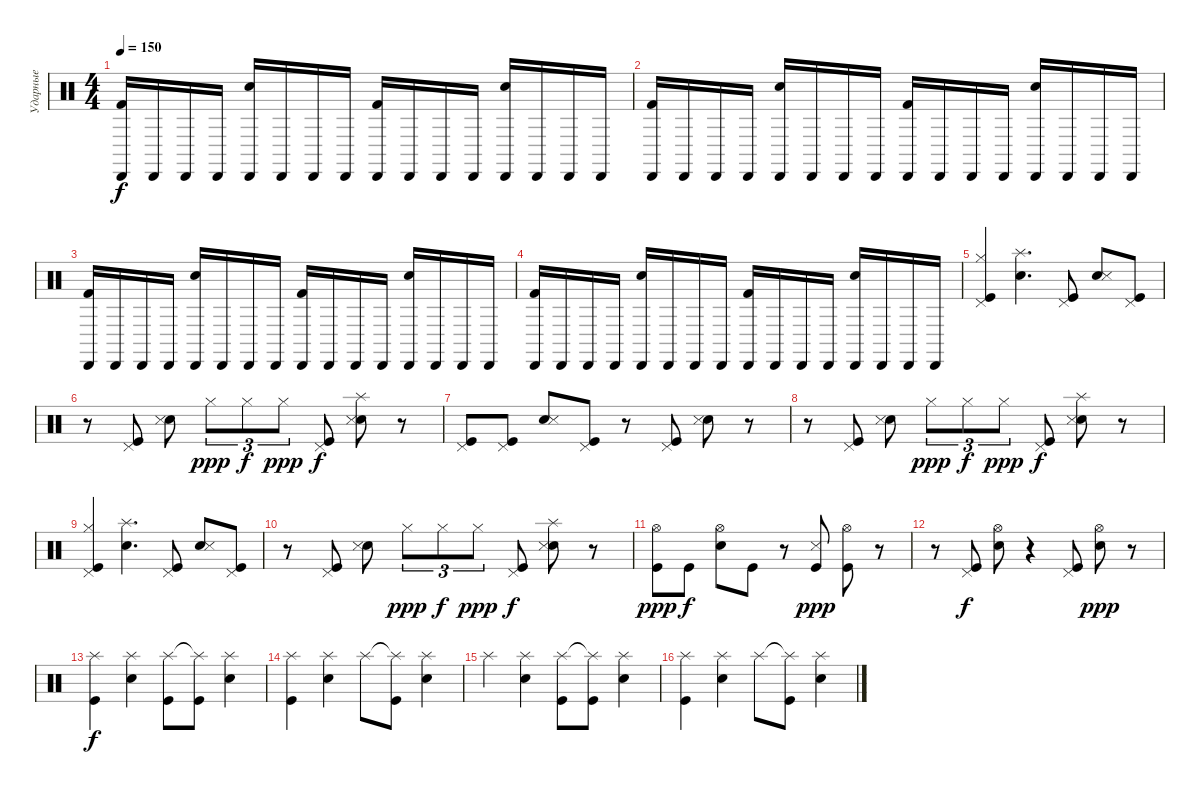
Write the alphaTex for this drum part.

\track ("Ударные" "Ударные") {instrument percussion}
\staff {score}
\articulation defaults
\ts (4 4)
\tempo 150
\clef neutral
\ks c
("Kick (hit) 2" "Cabasa (hit)").16{dy f} "Cabasa (hit)".16 "Cabasa (hit)".16 "Cabasa (hit)".16 ("Snare (hit) 2" "Cabasa (hit)").16 "Cabasa (hit)".16 "Cabasa (hit)".16 "Cabasa (hit)".16 ("Kick (hit) 2" "Cabasa (hit)").16 "Cabasa (hit)".16 "Cabasa (hit)".16 "Cabasa (hit)".16 ("Snare (hit) 2" "Cabasa (hit)").16 "Cabasa (hit)".16 "Cabasa (hit)".16 "Cabasa (hit)".16 |
("Kick (hit) 2" "Cabasa (hit)").16 "Cabasa (hit)".16 "Cabasa (hit)".16 "Cabasa (hit)".16 ("Snare (hit) 2" "Cabasa (hit)").16 "Cabasa (hit)".16 "Cabasa (hit)".16 "Cabasa (hit)".16 ("Kick (hit) 2" "Cabasa (hit)").16 "Cabasa (hit)".16 "Cabasa (hit)".16 "Cabasa (hit)".16 ("Snare (hit) 2" "Cabasa (hit)").16 "Cabasa (hit)".16 "Cabasa (hit)".16 "Cabasa (hit)".16 |
("Kick (hit) 2" "Cabasa (hit)").16 "Cabasa (hit)".16 "Cabasa (hit)".16 "Cabasa (hit)".16 ("Snare (hit) 2" "Cabasa (hit)").16 "Cabasa (hit)".16 "Cabasa (hit)".16 "Cabasa (hit)".16 ("Kick (hit) 2" "Cabasa (hit)").16 "Cabasa (hit)".16 "Cabasa (hit)".16 "Cabasa (hit)".16 ("Snare (hit) 2" "Cabasa (hit)").16 "Cabasa (hit)".16 "Cabasa (hit)".16 "Cabasa (hit)".16 |
("Kick (hit) 2" "Cabasa (hit)").16 "Cabasa (hit)".16 "Cabasa (hit)".16 "Cabasa (hit)".16 ("Snare (hit) 2" "Cabasa (hit)").16 "Cabasa (hit)".16 "Cabasa (hit)".16 "Cabasa (hit)".16 ("Kick (hit) 2" "Cabasa (hit)").16 "Cabasa (hit)".16 "Cabasa (hit)".16 "Cabasa (hit)".16 ("Snare (hit) 2" "Cabasa (hit)").16 "Cabasa (hit)".16 "Cabasa (hit)".16 "Cabasa (hit)".16 |
("Kick (hit)" "Hi-Hat (closed)" "Pedal Hi-Hat (hit)").4 ("Snare (hit) 2" "Splash (hit)").4{d} ("Kick (hit)" "Pedal Hi-Hat (hit)").8 ("Snare (hit) 2" "Snare (side stick) 3").8 ("Kick (hit)" "Pedal Hi-Hat (hit)").8 |
r.8 ("Kick (hit)" "Pedal Hi-Hat (hit)").8 ("Snare (hit) 2" "Snare (side stick) 3").8 "Hi-Hat (closed)".8{tu (3 2) dy ppp} "Hi-Hat (closed)".8{tu (3 2) dy f} "Hi-Hat (closed)".8{tu (3 2) dy ppp} ("Kick (hit)" "Pedal Hi-Hat (hit)").8{dy f} ("Snare (hit) 2" "Snare (side stick) 3" "Splash (hit)").8 r.8 |
("Kick (hit)" "Pedal Hi-Hat (hit)").8 ("Kick (hit)" "Pedal Hi-Hat (hit)").8 ("Snare (hit) 2" "Snare (side stick) 3").8 ("Kick (hit)" "Pedal Hi-Hat (hit)").8 r.8 ("Kick (hit)" "Pedal Hi-Hat (hit)").8 ("Snare (hit) 2" "Snare (side stick) 3").8 r.8 |
r.8 ("Kick (hit)" "Pedal Hi-Hat (hit)").8 ("Snare (hit) 2" "Snare (side stick) 3").8 "Hi-Hat (closed)".8{tu (3 2) dy ppp} "Hi-Hat (closed)".8{tu (3 2) dy f} "Hi-Hat (closed)".8{tu (3 2) dy ppp} ("Kick (hit)" "Pedal Hi-Hat (hit)").8{dy f} ("Snare (hit) 2" "Snare (side stick) 3" "Splash (hit)").8 r.8 |
("Kick (hit)" "Hi-Hat (closed)" "Pedal Hi-Hat (hit)").4 ("Snare (hit) 2" "Splash (hit)").4{d} ("Kick (hit)" "Pedal Hi-Hat (hit)").8 ("Snare (hit) 2" "Snare (side stick) 3").8 ("Kick (hit)" "Pedal Hi-Hat (hit)").8 |
r.8 ("Kick (hit)" "Pedal Hi-Hat (hit)").8 ("Snare (hit) 2" "Snare (side stick) 3").8 "Hi-Hat (closed)".8{tu (3 2) dy ppp} "Hi-Hat (closed)".8{tu (3 2) dy f} "Hi-Hat (closed)".8{tu (3 2) dy ppp} ("Kick (hit)" "Pedal Hi-Hat (hit)").8{dy f} ("Snare (hit) 2" "Snare (side stick) 3" "Splash (hit)").8 r.8 |
("Hi-Hat (open)" "Kick (hit)").8{dy ppp} "Kick (hit)".8{dy f} ("Hi-Hat (open)" "Snare (hit) 2").8 "Kick (hit)".8 r.8 ("Snare (side stick) 3" "Kick (hit)").8{dy ppp} ("Hi-Hat (open)" "Kick (hit)").8 r.8 |
r.8 ("Kick (hit)" "Pedal Hi-Hat (hit)").8{dy f} ("Hi-Hat (open)" "Snare (hit) 2").8 r.4 ("Kick (hit)" "Pedal Hi-Hat (hit)").8 ("Hi-Hat (open)" "Snare (hit) 2").8{dy ppp} r.8 |
("Splash (hit)" "Kick (hit)").4{dy f} ("Splash (hit)" "Snare (hit) 2").4 ("Splash (hit)" "Kick (hit)").8 ("Splash (hit)"{t} "Kick (hit)").8 ("Splash (hit)" "Snare (hit) 2").4 |
("Splash (hit)" "Kick (hit)").4 ("Splash (hit)" "Snare (hit) 2").4 "Splash (hit)".8 ("Splash (hit)"{t} "Kick (hit)").8 ("Splash (hit)" "Snare (hit) 2").4 |
"Splash (hit)".4 ("Splash (hit)" "Snare (hit) 2").4 ("Splash (hit)" "Kick (hit)").8 ("Splash (hit)"{t} "Kick (hit)").8 ("Splash (hit)" "Snare (hit) 2").4 |
("Splash (hit)" "Kick (hit)").4 ("Splash (hit)" "Snare (hit) 2").4 "Splash (hit)".8 ("Splash (hit)"{t} "Kick (hit)").8 ("Splash (hit)" "Snare (hit) 2").4
